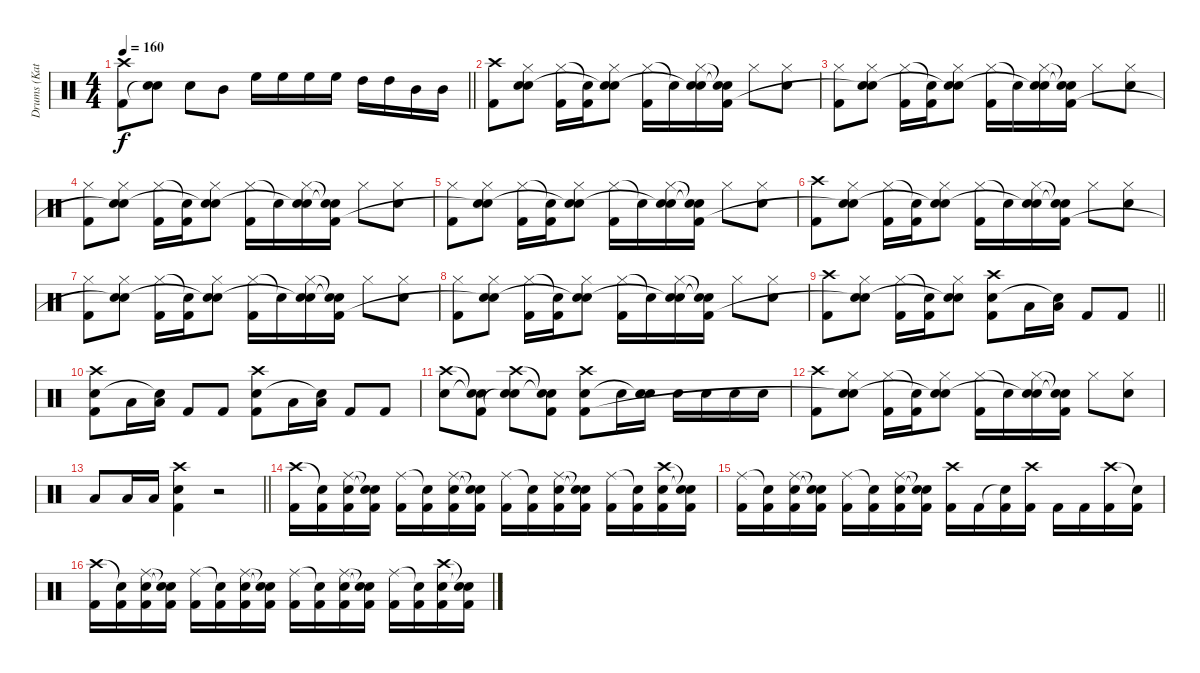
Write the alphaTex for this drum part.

\track ("Drums (Katsuji)" "Drums (Kat") {instrument percussion}
\staff {score}
\articulation defaults
\ts (4 4)
\tempo 160
\clef neutral
\barLineRight lightlight
\ks c
("Crash high (hit)" "Kick (hit) 2").8{dy f} ("Snare (hit) 2" "Snare (hit)"{t}).8 "Snare (hit) 2".8 "Mid Tom (hit)".8 "High Floor Tom (hit)".16 "High Floor Tom (hit)".16 "High Floor Tom (hit)".16 "High Floor Tom (hit)".16 "High Tom (hit)".16 "High Tom (hit)".16 "Mid Tom (hit)".16 "Mid Tom (hit)".16 |
("Crash high (hit)" "Kick (hit) 2").8 ("Hi-Hat (closed)" "Snare (hit) 2" "Snare (hit)"{t}).8 ("Hi-Hat (closed)" "Kick (hit) 2").16 ("Snare (hit)"{t} "Kick (hit) 2").16 ("Hi-Hat (closed)" "Snare (hit) 2" "Snare (hit)"{t}).8 ("Hi-Hat (closed)" "Kick (hit) 2").16 "Snare (hit)"{t}.16 ("Hi-Hat (closed)" "Snare (hit) 2" "Snare (hit)"{t}).16 ("Snare (hit)"{t} "Snare (hit)"{t} "Kick (hit) 2").16 "Hi-Hat (closed)".8 ("Hi-Hat (closed)" "Snare (hit) 2").8 |
("Hi-Hat (closed)" "Kick (hit) 2").8 ("Hi-Hat (closed)" "Snare (hit) 2" "Snare (hit)"{t}).8 ("Hi-Hat (closed)" "Kick (hit) 2").16 ("Snare (hit)"{t} "Kick (hit) 2").16 ("Hi-Hat (closed)" "Snare (hit) 2" "Snare (hit)"{t}).8 ("Hi-Hat (closed)" "Kick (hit) 2").16 "Snare (hit)"{t}.16 ("Hi-Hat (closed)" "Snare (hit) 2" "Snare (hit)"{t}).16 ("Snare (hit)"{t} "Snare (hit)"{t} "Kick (hit) 2").16 "Hi-Hat (closed)".8 ("Hi-Hat (closed)" "Snare (hit) 2").8 |
("Hi-Hat (closed)" "Kick (hit) 2").8 ("Hi-Hat (closed)" "Snare (hit) 2" "Snare (hit)"{t}).8 ("Hi-Hat (closed)" "Kick (hit) 2").16 ("Snare (hit)"{t} "Kick (hit) 2").16 ("Hi-Hat (closed)" "Snare (hit) 2" "Snare (hit)"{t}).8 ("Hi-Hat (closed)" "Kick (hit) 2").16 "Snare (hit)"{t}.16 ("Hi-Hat (closed)" "Snare (hit) 2" "Snare (hit)"{t}).16 ("Snare (hit)"{t} "Snare (hit)"{t} "Kick (hit) 2").16 "Hi-Hat (closed)".8 ("Hi-Hat (closed)" "Snare (hit) 2").8 |
("Hi-Hat (closed)" "Kick (hit) 2").8 ("Hi-Hat (closed)" "Snare (hit) 2" "Snare (hit)"{t}).8 ("Hi-Hat (closed)" "Kick (hit) 2").16 ("Snare (hit)"{t} "Kick (hit) 2").16 ("Hi-Hat (closed)" "Snare (hit) 2" "Snare (hit)"{t}).8 ("Hi-Hat (closed)" "Kick (hit) 2").16 "Snare (hit)"{t}.16 ("Hi-Hat (closed)" "Snare (hit) 2" "Snare (hit)"{t}).16 ("Snare (hit)"{t} "Snare (hit)"{t} "Kick (hit) 2").16 "Hi-Hat (closed)".8 ("Hi-Hat (closed)" "Snare (hit) 2").8 |
("Crash high (hit)" "Kick (hit) 2").8 ("Hi-Hat (closed)" "Snare (hit) 2" "Snare (hit)"{t}).8 ("Hi-Hat (closed)" "Kick (hit) 2").16 ("Snare (hit)"{t} "Kick (hit) 2").16 ("Hi-Hat (closed)" "Snare (hit) 2" "Snare (hit)"{t}).8 ("Hi-Hat (closed)" "Kick (hit) 2").16 "Snare (hit)"{t}.16 ("Hi-Hat (closed)" "Snare (hit) 2" "Snare (hit)"{t}).16 ("Snare (hit)"{t} "Snare (hit)"{t} "Kick (hit) 2").16 "Hi-Hat (closed)".8 ("Hi-Hat (closed)" "Snare (hit) 2").8 |
("Hi-Hat (closed)" "Kick (hit) 2").8 ("Hi-Hat (closed)" "Snare (hit) 2" "Snare (hit)"{t}).8 ("Hi-Hat (closed)" "Kick (hit) 2").16 ("Snare (hit)"{t} "Kick (hit) 2").16 ("Hi-Hat (closed)" "Snare (hit) 2" "Snare (hit)"{t}).8 ("Hi-Hat (closed)" "Kick (hit) 2").16 "Snare (hit)"{t}.16 ("Hi-Hat (closed)" "Snare (hit) 2" "Snare (hit)"{t}).16 ("Snare (hit)"{t} "Snare (hit)"{t} "Kick (hit) 2").16 "Hi-Hat (closed)".8 ("Hi-Hat (closed)" "Snare (hit) 2").8 |
("Hi-Hat (closed)" "Kick (hit) 2").8 ("Hi-Hat (closed)" "Snare (hit) 2" "Snare (hit)"{t}).8 ("Hi-Hat (closed)" "Kick (hit) 2").16 ("Snare (hit)"{t} "Kick (hit) 2").16 ("Hi-Hat (closed)" "Snare (hit) 2" "Snare (hit)"{t}).8 ("Hi-Hat (closed)" "Kick (hit) 2").16 "Snare (hit)"{t}.16 ("Hi-Hat (closed)" "Snare (hit) 2" "Snare (hit)"{t}).16 ("Snare (hit)"{t} "Snare (hit)"{t} "Kick (hit) 2").16 "Hi-Hat (closed)".8 ("Hi-Hat (closed)" "Snare (hit) 2").8 |
\barLineRight lightlight
("Crash high (hit)" "Kick (hit) 2").8 ("Hi-Hat (closed)" "Snare (hit) 2" "Snare (hit)"{t}).8 ("Hi-Hat (closed)" "Kick (hit) 2").16 ("Snare (hit)"{t} "Kick (hit) 2").16 ("Hi-Hat (closed)" "Snare (hit) 2" "Snare (hit)"{t}).8 ("Crash high (hit)" "Snare (hit) 2" "Kick (hit) 2").8 "Low Tom (hit)".16 ("Low Tom (hit)" "Snare (hit)"{t}).16 "Kick (hit) 2".8 "Kick (hit) 2".8 |
("Crash high (hit)" "Snare (hit) 2" "Kick (hit) 2").8 "Low Tom (hit)".16 ("Low Tom (hit)" "Snare (hit)"{t}).16 "Kick (hit) 2".8 "Kick (hit) 2".8 ("Crash high (hit)" "Snare (hit) 2" "Kick (hit) 2").8 "Low Tom (hit)".16 ("Low Tom (hit)" "Snare (hit)"{t}).16 "Kick (hit) 2".8 "Kick (hit) 2".8 |
("Crash high (hit)" "Snare (hit) 2").8 ("Snare (hit)"{t} "Snare (hit)"{t} "Kick (hit) 2").8 ("Crash high (hit)" "Snare (hit) 2" "Snare (hit)"{t}).8 ("Snare (hit)"{t} "Snare (hit)"{t} "Kick (hit) 2").8 ("Crash high (hit)" "Snare (hit) 2" "Kick (hit) 2").8 "Snare (hit) 2".16 ("Snare (hit) 2" "Snare (hit)"{t}).16 "Snare (hit) 2".16 "Snare (hit) 2".16 "Snare (hit) 2".16 "Snare (hit) 2".16 |
("Crash high (hit)" "Kick (hit) 2").8 ("Hi-Hat (closed)" "Snare (hit) 2" "Snare (hit)"{t}).8 ("Hi-Hat (closed)" "Kick (hit) 2").16 ("Snare (hit)"{t} "Kick (hit) 2").16 ("Hi-Hat (closed)" "Snare (hit) 2" "Snare (hit)"{t}).8 ("Hi-Hat (closed)" "Kick (hit) 2").16 "Snare (hit)"{t}.16 ("Hi-Hat (closed)" "Snare (hit) 2" "Snare (hit)"{t}).16 ("Snare (hit)"{t} "Snare (hit)"{t} "Kick (hit) 2").16 "Hi-Hat (closed)".8 ("Hi-Hat (closed)" "Snare (hit) 2").8 |
\barLineRight lightlight "Low Tom (hit)".8 "Low Tom (hit)".16 "Low Tom (hit)".16
("Crash high (hit)" "Snare (hit) 2" "Kick (hit) 2").4 r.2 |
("Crash high (hit)" "Kick (hit) 2").16 ("Snare (hit)"{t} "Kick (hit) 2").16 ("Ride (middle)" "Snare (hit) 2" "Kick (hit) 2").16 ("Snare (hit)"{t} "Snare (hit)"{t} "Kick (hit) 2").16 ("Ride (middle)" "Kick (hit) 2").16 ("Snare (hit)"{t} "Kick (hit) 2").16 ("Ride (middle)" "Snare (hit) 2" "Kick (hit) 2").16 ("Snare (hit)"{t} "Snare (hit)"{t} "Kick (hit) 2").16 ("Ride (middle)" "Kick (hit) 2").16 ("Snare (hit)"{t} "Kick (hit) 2").16 ("Ride (middle)" "Snare (hit) 2" "Kick (hit) 2").16 ("Snare (hit)"{t} "Snare (hit)"{t} "Kick (hit) 2").16 ("Ride (middle)" "Kick (hit) 2").16 ("Snare (hit)"{t} "Kick (hit) 2").16 ("Crash high (hit)" "Snare (hit) 2" "Kick (hit) 2").16 ("Snare (hit)"{t} "Snare (hit)"{t} "Kick (hit) 2").16 |
("Ride (middle)" "Kick (hit) 2").16 ("Snare (hit)"{t} "Kick (hit) 2").16 ("Ride (middle)" "Snare (hit) 2" "Kick (hit) 2").16 ("Snare (hit)"{t} "Snare (hit)"{t} "Kick (hit) 2").16 ("Ride (middle)" "Kick (hit) 2").16 ("Snare (hit)"{t} "Kick (hit) 2").16 ("Ride (middle)" "Snare (hit) 2" "Kick (hit) 2").16 ("Snare (hit)"{t} "Snare (hit)"{t} "Kick (hit) 2").16 ("Crash high (hit)" "Kick (hit) 2").16 "Kick (hit) 2".16 ("Snare (hit)"{t} "Kick (hit) 2").16 ("Crash high (hit)" "Kick (hit) 2").16 "Kick (hit) 2".16 "Kick (hit) 2".16 ("Crash high (hit)" "Kick (hit) 2").16 ("Snare (hit)"{t} "Kick (hit) 2").16 |
("Crash high (hit)" "Kick (hit) 2").16 ("Snare (hit)"{t} "Kick (hit) 2").16 ("Ride (middle)" "Snare (hit) 2" "Kick (hit) 2").16 ("Snare (hit)"{t} "Snare (hit)"{t} "Kick (hit) 2").16 ("Ride (middle)" "Kick (hit) 2").16 ("Snare (hit)"{t} "Kick (hit) 2").16 ("Ride (middle)" "Snare (hit) 2" "Kick (hit) 2").16 ("Snare (hit)"{t} "Snare (hit)"{t} "Kick (hit) 2").16 ("Ride (middle)" "Kick (hit) 2").16 ("Snare (hit)"{t} "Kick (hit) 2").16 ("Ride (middle)" "Snare (hit) 2" "Kick (hit) 2").16 ("Snare (hit)"{t} "Snare (hit)"{t} "Kick (hit) 2").16 ("Ride (middle)" "Kick (hit) 2").16 ("Snare (hit)"{t} "Kick (hit) 2").16 ("Crash high (hit)" "Snare (hit) 2" "Kick (hit) 2").16 ("Snare (hit)"{t} "Snare (hit)"{t} "Kick (hit) 2").16
